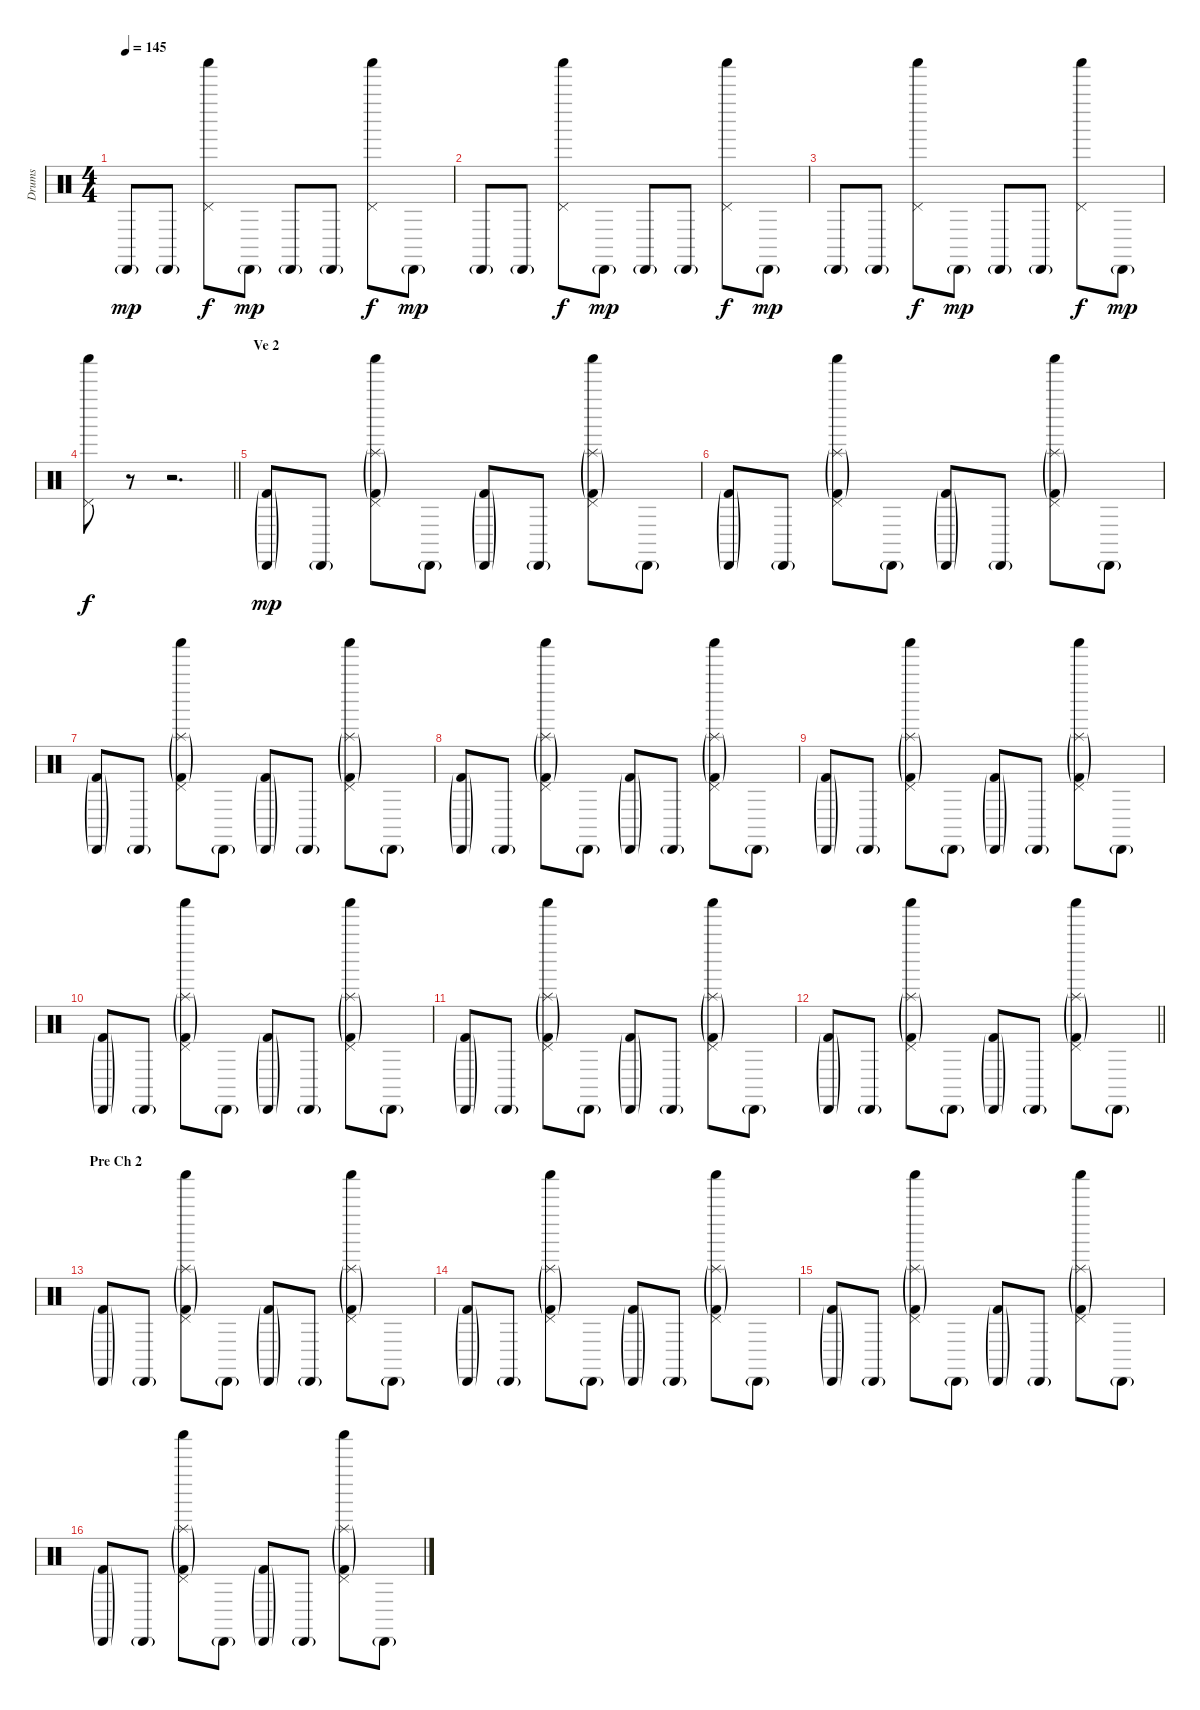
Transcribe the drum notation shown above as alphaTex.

\track ("Drums" "Drums") {instrument percussion}
\staff {score}
\articulation defaults
\ts (4 4)
\tempo 145
\clef neutral
\ks c "Cabasa (hit)"{g}.8{dy mp} "Cabasa (hit)"{g}.8
("Shaker (hit)" "Pedal Hi-Hat (hit)").8{dy f} "Cabasa (hit)"{g}.8{dy mp} "Cabasa (hit)"{g}.8 "Cabasa (hit)"{g}.8 ("Shaker (hit)" "Pedal Hi-Hat (hit)").8{dy f} "Cabasa (hit)"{g}.8{dy mp} |
"Cabasa (hit)"{g}.8 "Cabasa (hit)"{g}.8 ("Shaker (hit)" "Pedal Hi-Hat (hit)").8{dy f} "Cabasa (hit)"{g}.8{dy mp} "Cabasa (hit)"{g}.8 "Cabasa (hit)"{g}.8 ("Shaker (hit)" "Pedal Hi-Hat (hit)").8{dy f} "Cabasa (hit)"{g}.8{dy mp} |
"Cabasa (hit)"{g}.8 "Cabasa (hit)"{g}.8 ("Shaker (hit)" "Pedal Hi-Hat (hit)").8{dy f} "Cabasa (hit)"{g}.8{dy mp} "Cabasa (hit)"{g}.8 "Cabasa (hit)"{g}.8 ("Shaker (hit)" "Pedal Hi-Hat (hit)").8{dy f} "Cabasa (hit)"{g}.8{dy mp} |
\barLineRight lightlight
("Shaker (hit)" "Pedal Hi-Hat (hit)").8{dy f} r.8 r.2{d} |
\section ("" "Ve 2")
("Cabasa (hit)"{g} "Kick (hit) 2"{g}).8{dy mp} "Cabasa (hit)"{g}.8 ("Shaker (hit)" "Pedal Hi-Hat (hit)" "Splash (hit)"{g} "Kick (hit) 2"{g}).8 "Cabasa (hit)"{g}.8 ("Cabasa (hit)"{g} "Kick (hit) 2"{g}).8 "Cabasa (hit)"{g}.8 ("Shaker (hit)" "Pedal Hi-Hat (hit)" "Splash (hit)"{g} "Kick (hit) 2"{g}).8 "Cabasa (hit)"{g}.8 |
("Cabasa (hit)"{g} "Kick (hit) 2"{g}).8 "Cabasa (hit)"{g}.8 ("Shaker (hit)" "Pedal Hi-Hat (hit)" "Splash (hit)"{g} "Kick (hit) 2"{g}).8 "Cabasa (hit)"{g}.8 ("Cabasa (hit)"{g} "Kick (hit) 2"{g}).8 "Cabasa (hit)"{g}.8 ("Shaker (hit)" "Pedal Hi-Hat (hit)" "Splash (hit)"{g} "Kick (hit) 2"{g}).8 "Cabasa (hit)"{g}.8 |
("Cabasa (hit)"{g} "Kick (hit) 2"{g}).8 "Cabasa (hit)"{g}.8 ("Shaker (hit)" "Pedal Hi-Hat (hit)" "Splash (hit)"{g} "Kick (hit) 2"{g}).8 "Cabasa (hit)"{g}.8 ("Cabasa (hit)"{g} "Kick (hit) 2"{g}).8 "Cabasa (hit)"{g}.8 ("Shaker (hit)" "Pedal Hi-Hat (hit)" "Splash (hit)"{g} "Kick (hit) 2"{g}).8 "Cabasa (hit)"{g}.8 |
("Cabasa (hit)"{g} "Kick (hit) 2"{g}).8 "Cabasa (hit)"{g}.8 ("Shaker (hit)" "Pedal Hi-Hat (hit)" "Splash (hit)"{g} "Kick (hit) 2"{g}).8 "Cabasa (hit)"{g}.8 ("Cabasa (hit)"{g} "Kick (hit) 2"{g}).8 "Cabasa (hit)"{g}.8 ("Shaker (hit)" "Pedal Hi-Hat (hit)" "Splash (hit)"{g} "Kick (hit) 2"{g}).8 "Cabasa (hit)"{g}.8 |
("Cabasa (hit)"{g} "Kick (hit) 2"{g}).8 "Cabasa (hit)"{g}.8 ("Shaker (hit)" "Pedal Hi-Hat (hit)" "Splash (hit)"{g} "Kick (hit) 2"{g}).8 "Cabasa (hit)"{g}.8 ("Cabasa (hit)"{g} "Kick (hit) 2"{g}).8 "Cabasa (hit)"{g}.8 ("Shaker (hit)" "Pedal Hi-Hat (hit)" "Splash (hit)"{g} "Kick (hit) 2"{g}).8 "Cabasa (hit)"{g}.8 |
("Cabasa (hit)"{g} "Kick (hit) 2"{g}).8 "Cabasa (hit)"{g}.8 ("Shaker (hit)" "Pedal Hi-Hat (hit)" "Splash (hit)"{g} "Kick (hit) 2"{g}).8 "Cabasa (hit)"{g}.8 ("Cabasa (hit)"{g} "Kick (hit) 2"{g}).8 "Cabasa (hit)"{g}.8 ("Shaker (hit)" "Pedal Hi-Hat (hit)" "Splash (hit)"{g} "Kick (hit) 2"{g}).8 "Cabasa (hit)"{g}.8 |
("Cabasa (hit)"{g} "Kick (hit) 2"{g}).8 "Cabasa (hit)"{g}.8 ("Shaker (hit)" "Pedal Hi-Hat (hit)" "Splash (hit)"{g} "Kick (hit) 2"{g}).8 "Cabasa (hit)"{g}.8 ("Cabasa (hit)"{g} "Kick (hit) 2"{g}).8 "Cabasa (hit)"{g}.8 ("Shaker (hit)" "Pedal Hi-Hat (hit)" "Splash (hit)"{g} "Kick (hit) 2"{g}).8 "Cabasa (hit)"{g}.8 |
\barLineRight lightlight
("Cabasa (hit)"{g} "Kick (hit) 2"{g}).8 "Cabasa (hit)"{g}.8 ("Shaker (hit)" "Pedal Hi-Hat (hit)" "Splash (hit)"{g} "Kick (hit) 2"{g}).8 "Cabasa (hit)"{g}.8 ("Cabasa (hit)"{g} "Kick (hit) 2"{g}).8 "Cabasa (hit)"{g}.8 ("Shaker (hit)" "Pedal Hi-Hat (hit)" "Splash (hit)"{g} "Kick (hit) 2"{g}).8 "Cabasa (hit)"{g}.8 |
\section ("" "Pre Ch 2")
("Cabasa (hit)"{g} "Kick (hit) 2"{g}).8 "Cabasa (hit)"{g}.8 ("Shaker (hit)" "Pedal Hi-Hat (hit)" "Splash (hit)"{g} "Kick (hit) 2"{g}).8 "Cabasa (hit)"{g}.8 ("Cabasa (hit)"{g} "Kick (hit) 2"{g}).8 "Cabasa (hit)"{g}.8 ("Shaker (hit)" "Pedal Hi-Hat (hit)" "Splash (hit)"{g} "Kick (hit) 2"{g}).8 "Cabasa (hit)"{g}.8 |
("Cabasa (hit)"{g} "Kick (hit) 2"{g}).8 "Cabasa (hit)"{g}.8 ("Shaker (hit)" "Pedal Hi-Hat (hit)" "Splash (hit)"{g} "Kick (hit) 2"{g}).8 "Cabasa (hit)"{g}.8 ("Cabasa (hit)"{g} "Kick (hit) 2"{g}).8 "Cabasa (hit)"{g}.8 ("Shaker (hit)" "Pedal Hi-Hat (hit)" "Splash (hit)"{g} "Kick (hit) 2"{g}).8 "Cabasa (hit)"{g}.8 |
("Cabasa (hit)"{g} "Kick (hit) 2"{g}).8 "Cabasa (hit)"{g}.8 ("Shaker (hit)" "Pedal Hi-Hat (hit)" "Splash (hit)"{g} "Kick (hit) 2"{g}).8 "Cabasa (hit)"{g}.8 ("Cabasa (hit)"{g} "Kick (hit) 2"{g}).8 "Cabasa (hit)"{g}.8 ("Shaker (hit)" "Pedal Hi-Hat (hit)" "Splash (hit)"{g} "Kick (hit) 2"{g}).8 "Cabasa (hit)"{g}.8 |
("Cabasa (hit)"{g} "Kick (hit) 2"{g}).8 "Cabasa (hit)"{g}.8 ("Shaker (hit)" "Pedal Hi-Hat (hit)" "Splash (hit)"{g} "Kick (hit) 2"{g}).8 "Cabasa (hit)"{g}.8 ("Cabasa (hit)"{g} "Kick (hit) 2"{g}).8 "Cabasa (hit)"{g}.8 ("Shaker (hit)" "Pedal Hi-Hat (hit)" "Splash (hit)"{g} "Kick (hit) 2"{g}).8 "Cabasa (hit)"{g}.8
